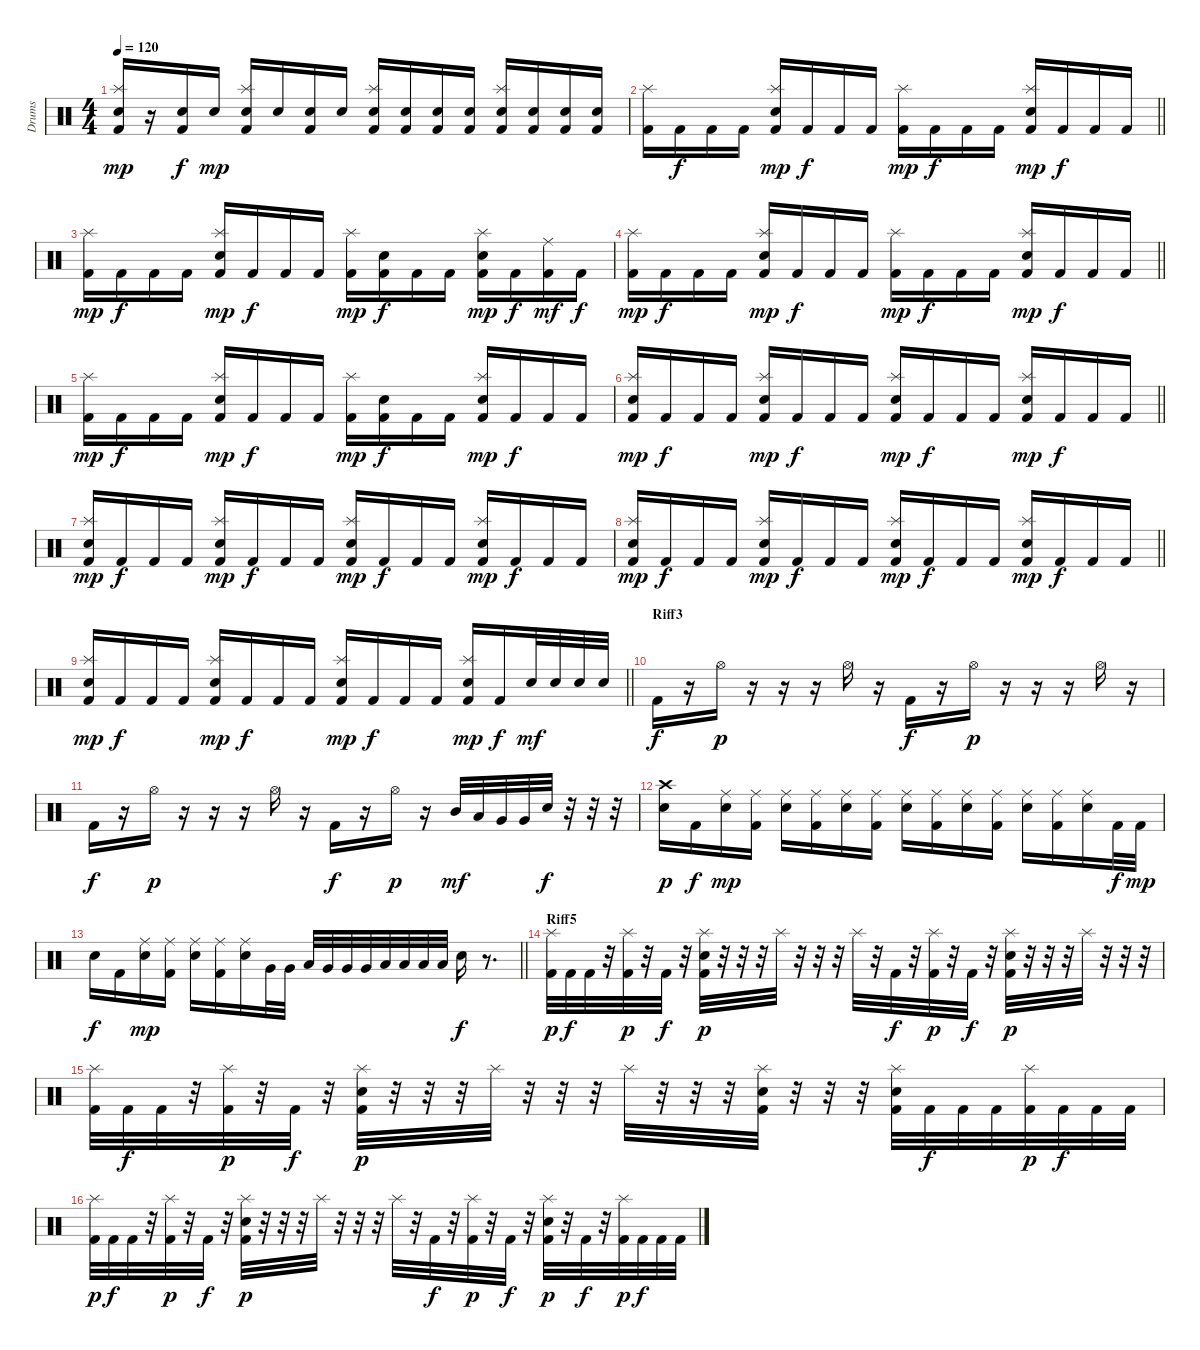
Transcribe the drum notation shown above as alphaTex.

\track ("Drums" "Drums") {instrument percussion}
\staff {score}
\articulation defaults
\ts (4 4)
\tempo 120
\clef neutral
\ks c
("Kick (hit) 2" "Splash (hit)" "Snare (hit) 2").16{dy mp} r.16 ("Kick (hit) 2" "Snare (hit) 2").16{dy f} "Snare (hit) 2".16{dy mp} ("Kick (hit) 2" "Splash (hit)" "Snare (hit) 2").16 "Snare (hit) 2".16 ("Kick (hit) 2" "Snare (hit) 2").16 "Snare (hit) 2".16 ("Kick (hit) 2" "Splash (hit)" "Snare (hit) 2").16 ("Kick (hit) 2" "Snare (hit) 2").16 ("Kick (hit) 2" "Snare (hit) 2").16 ("Kick (hit) 2" "Snare (hit) 2").16 ("Kick (hit) 2" "Splash (hit)" "Snare (hit) 2").16 ("Kick (hit) 2" "Snare (hit) 2").16 ("Kick (hit) 2" "Snare (hit) 2").16 ("Kick (hit) 2" "Snare (hit) 2").16 |
\barLineRight lightlight
("Kick (hit) 2" "Splash (hit)").16 "Kick (hit) 2".16{dy f} "Kick (hit) 2".16 "Kick (hit) 2".16 ("Kick (hit) 2" "Splash (hit)" "Snare (hit) 2").16{dy mp} "Kick (hit) 2".16{dy f} "Kick (hit) 2".16 "Kick (hit) 2".16 ("Kick (hit) 2" "Splash (hit)").16{dy mp} "Kick (hit) 2".16{dy f} "Kick (hit) 2".16 "Kick (hit) 2".16 ("Kick (hit) 2" "Splash (hit)" "Snare (hit) 2").16{dy mp} "Kick (hit) 2".16{dy f} "Kick (hit) 2".16 "Kick (hit) 2".16 |
("Kick (hit) 2" "Splash (hit)").16{dy mp} "Kick (hit) 2".16{dy f} "Kick (hit) 2".16 "Kick (hit) 2".16 ("Kick (hit) 2" "Splash (hit)" "Snare (hit) 2").16{dy mp} "Kick (hit) 2".16{dy f} "Kick (hit) 2".16 "Kick (hit) 2".16 ("Kick (hit) 2" "Splash (hit)").16{dy mp} ("Kick (hit) 2" "Snare (hit) 2").16{dy f} "Kick (hit) 2".16 "Kick (hit) 2".16 ("Kick (hit) 2" "Splash (hit)" "Snare (hit) 2").16{dy mp} "Kick (hit) 2".16{dy f} ("Kick (hit) 2" "Ride (middle)").16{dy mf} "Kick (hit) 2".16{dy f} |
\barLineRight lightlight
("Kick (hit) 2" "Splash (hit)").16{dy mp} "Kick (hit) 2".16{dy f} "Kick (hit) 2".16 "Kick (hit) 2".16 ("Kick (hit) 2" "Splash (hit)" "Snare (hit) 2").16{dy mp} "Kick (hit) 2".16{dy f} "Kick (hit) 2".16 "Kick (hit) 2".16 ("Kick (hit) 2" "Splash (hit)").16{dy mp} "Kick (hit) 2".16{dy f} "Kick (hit) 2".16 "Kick (hit) 2".16 ("Kick (hit) 2" "Splash (hit)" "Snare (hit) 2").16{dy mp} "Kick (hit) 2".16{dy f} "Kick (hit) 2".16 "Kick (hit) 2".16 |
("Kick (hit) 2" "Splash (hit)").16{dy mp} "Kick (hit) 2".16{dy f} "Kick (hit) 2".16 "Kick (hit) 2".16 ("Kick (hit) 2" "Splash (hit)" "Snare (hit) 2").16{dy mp} "Kick (hit) 2".16{dy f} "Kick (hit) 2".16 "Kick (hit) 2".16 ("Kick (hit) 2" "Splash (hit)").16{dy mp} ("Kick (hit) 2" "Snare (hit) 2").16{dy f} "Kick (hit) 2".16 "Kick (hit) 2".16 ("Kick (hit) 2" "Splash (hit)" "Snare (hit) 2").16{dy mp} "Kick (hit) 2".16{dy f} "Kick (hit) 2".16 "Kick (hit) 2".16 |
\barLineRight lightlight
("Kick (hit) 2" "Splash (hit)" "Snare (hit) 2").16{dy mp} "Kick (hit) 2".16{dy f} "Kick (hit) 2".16 "Kick (hit) 2".16 ("Kick (hit) 2" "Splash (hit)" "Snare (hit) 2").16{dy mp} "Kick (hit) 2".16{dy f} "Kick (hit) 2".16 "Kick (hit) 2".16 ("Kick (hit) 2" "Splash (hit)" "Snare (hit) 2").16{dy mp} "Kick (hit) 2".16{dy f} "Kick (hit) 2".16 "Kick (hit) 2".16 ("Kick (hit) 2" "Splash (hit)" "Snare (hit) 2").16{dy mp} "Kick (hit) 2".16{dy f} "Kick (hit) 2".16 "Kick (hit) 2".16 |
("Kick (hit) 2" "Splash (hit)" "Snare (hit) 2").16{dy mp} "Kick (hit) 2".16{dy f} "Kick (hit) 2".16 "Kick (hit) 2".16 ("Kick (hit) 2" "Splash (hit)" "Snare (hit) 2").16{dy mp} "Kick (hit) 2".16{dy f} "Kick (hit) 2".16 "Kick (hit) 2".16 ("Kick (hit) 2" "Splash (hit)" "Snare (hit) 2").16{dy mp} "Kick (hit) 2".16{dy f} "Kick (hit) 2".16 "Kick (hit) 2".16 ("Kick (hit) 2" "Splash (hit)" "Snare (hit) 2").16{dy mp} "Kick (hit) 2".16{dy f} "Kick (hit) 2".16 "Kick (hit) 2".16 |
\barLineRight lightlight
("Kick (hit) 2" "Splash (hit)" "Snare (hit) 2").16{dy mp} "Kick (hit) 2".16{dy f} "Kick (hit) 2".16 "Kick (hit) 2".16 ("Kick (hit) 2" "Splash (hit)" "Snare (hit) 2").16{dy mp} "Kick (hit) 2".16{dy f} "Kick (hit) 2".16 "Kick (hit) 2".16 ("Kick (hit) 2" "Splash (hit)" "Snare (hit) 2").16{dy mp} "Kick (hit) 2".16{dy f} "Kick (hit) 2".16 "Kick (hit) 2".16 ("Kick (hit) 2" "Splash (hit)" "Snare (hit) 2").16{dy mp} "Kick (hit) 2".16{dy f} "Kick (hit) 2".16 "Kick (hit) 2".16 |
\barLineRight lightlight
("Kick (hit) 2" "Splash (hit)" "Snare (hit) 2").16{dy mp} "Kick (hit) 2".16{dy f} "Kick (hit) 2".16 "Kick (hit) 2".16 ("Kick (hit) 2" "Splash (hit)" "Snare (hit) 2").16{dy mp} "Kick (hit) 2".16{dy f} "Kick (hit) 2".16 "Kick (hit) 2".16 ("Kick (hit) 2" "Splash (hit)" "Snare (hit) 2").16{dy mp} "Kick (hit) 2".16{dy f} "Kick (hit) 2".16 "Kick (hit) 2".16 ("Kick (hit) 2" "Splash (hit)" "Snare (hit) 2").16{dy mp} "Kick (hit) 2".16{dy f} "Snare (hit) 2".32{dy mf} "Snare (hit) 2".32 "Snare (hit) 2".32 "Snare (hit) 2".32 |
\section ("" "Riff3")
"Kick (hit) 2".16{dy f} r.16 "Hi-Hat (open)".16{dy p} r.16 r.16 r.16 "Hi-Hat (open)".16 r.16 "Kick (hit) 2".16{dy f} r.16 "Hi-Hat (open)".16{dy p} r.16 r.16 r.16 "Hi-Hat (open)".16 r.16 |
"Kick (hit) 2".16{dy f} r.16 "Hi-Hat (open)".16{dy p} r.16 r.16 r.16 "Hi-Hat (open)".16 r.16 "Kick (hit) 2".16{dy f} r.16 "Hi-Hat (open)".16{dy p} r.16 "Mid Tom (hit)".32{dy mf} "Low Tom (hit)".32 "Very Low Tom (hit)".32 "Very Low Tom (hit)".32 "Snare (hit) 2".32{dy f} r.32 r.32 r.32 |
("Crash high (hit)" "Snare (hit) 2").16{dy p} "Kick (hit) 2".16{dy f} ("Ride (middle)" "Snare (hit) 2").16{dy mp} ("Kick (hit) 2" "Ride (middle)").16 ("Ride (middle)" "Snare (hit) 2").16 ("Kick (hit) 2" "Ride (middle)").16 ("Ride (middle)" "Snare (hit) 2").16 ("Kick (hit) 2" "Ride (middle)").16 ("Ride (middle)" "Snare (hit) 2").16 ("Kick (hit) 2" "Ride (middle)").16 ("Ride (middle)" "Snare (hit) 2").16 ("Kick (hit) 2" "Ride (middle)").16 ("Ride (middle)" "Snare (hit) 2").16 ("Kick (hit) 2" "Ride (middle)").16 ("Ride (middle)" "Snare (hit) 2").16 "Kick (hit) 2".32{dy f} "Kick (hit) 2".32{dy mp} |
\barLineRight lightlight "Snare (hit) 2".16{dy f} "Kick (hit) 2".16
("Ride (middle)" "Snare (hit) 2").16{dy mp} ("Kick (hit) 2" "Ride (middle)").16 ("Ride (middle)" "Snare (hit) 2").16 ("Kick (hit) 2" "Ride (middle)").16 ("Ride (middle)" "Snare (hit) 2").16 "Very Low Tom (hit)".32 "Very Low Tom (hit)".32 "Low Tom (hit)".32 "Very Low Tom (hit)".32 "Very Low Tom (hit)".32 "Very Low Tom (hit)".32 "Low Floor Tom (hit)".32 "Low Floor Tom (hit)".32 "Low Floor Tom (hit)".32 "Low Floor Tom (hit)".32 "Snare (hit) 2".16{dy f} r.8{d} |
\section ("" "Riff5")
("Kick (hit) 2" "Splash (hit)").32{dy p} "Kick (hit) 2".32{dy f} "Kick (hit) 2".32 r.32 ("Kick (hit) 2" "Splash (hit)").32{dy p} r.32 "Kick (hit) 2".32{dy f} r.32 ("Kick (hit) 2" "Splash (hit)" "Snare (hit) 2").32{dy p} r.32 r.32 r.32 "Splash (hit)".32 r.32 r.32 r.32 "Splash (hit)".32 r.32 "Kick (hit) 2".32{dy f} r.32 ("Kick (hit) 2" "Splash (hit)").32{dy p} r.32 "Kick (hit) 2".32{dy f} r.32 ("Kick (hit) 2" "Splash (hit)" "Snare (hit) 2").32{dy p} r.32 r.32 r.32 "Splash (hit)".32 r.32 r.32 r.32 |
("Kick (hit) 2" "Splash (hit)").32 "Kick (hit) 2".32{dy f} "Kick (hit) 2".32 r.32 ("Kick (hit) 2" "Splash (hit)").32{dy p} r.32 "Kick (hit) 2".32{dy f} r.32 ("Kick (hit) 2" "Splash (hit)" "Snare (hit) 2").32{dy p} r.32 r.32 r.32 "Splash (hit)".32 r.32 r.32 r.32 "Splash (hit)".32 r.32 r.32 r.32 ("Kick (hit) 2" "Splash (hit)" "Snare (hit) 2").32 r.32 r.32 r.32 ("Kick (hit) 2" "Splash (hit)" "Snare (hit) 2").32 "Kick (hit) 2".32{dy f} "Kick (hit) 2".32 "Kick (hit) 2".32 ("Kick (hit) 2" "Splash (hit)").32{dy p} "Kick (hit) 2".32{dy f} "Kick (hit) 2".32 "Kick (hit) 2".32 |
("Kick (hit) 2" "Splash (hit)").32{dy p} "Kick (hit) 2".32{dy f} "Kick (hit) 2".32 r.32 ("Kick (hit) 2" "Splash (hit)").32{dy p} r.32 "Kick (hit) 2".32{dy f} r.32 ("Kick (hit) 2" "Splash (hit)" "Snare (hit) 2").32{dy p} r.32 r.32 r.32 "Splash (hit)".32 r.32 r.32 r.32 "Splash (hit)".32 r.32 "Kick (hit) 2".32{dy f} r.32 ("Kick (hit) 2" "Splash (hit)").32{dy p} r.32 "Kick (hit) 2".32{dy f} r.32 ("Kick (hit) 2" "Splash (hit)" "Snare (hit) 2").32{dy p} r.32 "Kick (hit) 2".32{dy f} r.32 ("Kick (hit) 2" "Splash (hit)").32{dy p} "Kick (hit) 2".32{dy f} "Kick (hit) 2".32 "Kick (hit) 2".32
